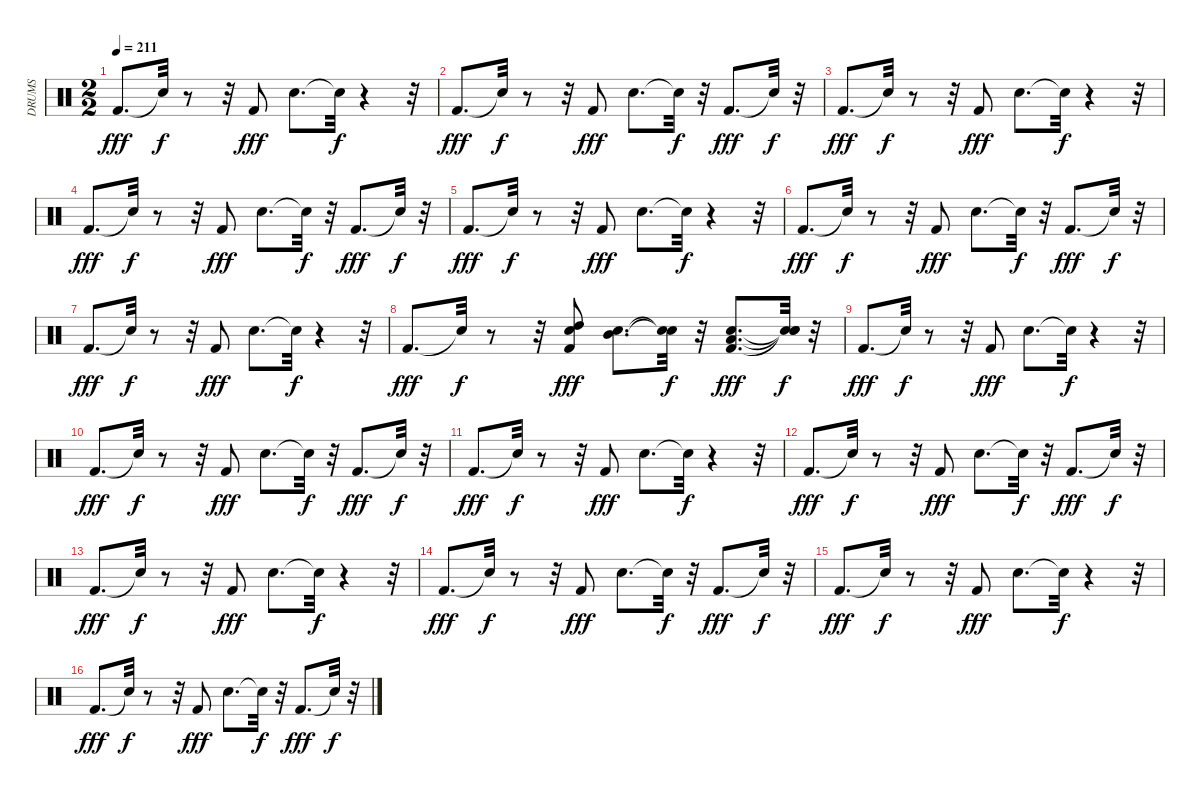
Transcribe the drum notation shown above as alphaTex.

\track ("DRUMS" "DRUMS") {instrument percussion}
\staff {score}
\articulation defaults
\ts (2 2)
\tempo 211
\clef neutral
\ks c "Kick (hit) 2".8{d dy fff} "Snare (hit)"{t}.32{dy f}
r.8 r.32 "Kick (hit) 2".8{dy fff} "Snare (hit) 2".8{d} "Snare (hit)"{t}.32{dy f} r.4 r.32 |
"Kick (hit) 2".8{d dy fff} "Snare (hit)"{t}.32{dy f} r.8 r.32 "Kick (hit) 2".8{dy fff} "Snare (hit) 2".8{d} "Snare (hit)"{t}.32{dy f} r.32 "Kick (hit) 2".8{d dy fff} "Snare (hit)"{t}.32{dy f} r.32 |
"Kick (hit) 2".8{d dy fff} "Snare (hit)"{t}.32{dy f} r.8 r.32 "Kick (hit) 2".8{dy fff} "Snare (hit) 2".8{d} "Snare (hit)"{t}.32{dy f} r.4 r.32 |
"Kick (hit) 2".8{d dy fff} "Snare (hit)"{t}.32{dy f} r.8 r.32 "Kick (hit) 2".8{dy fff} "Snare (hit) 2".8{d} "Snare (hit)"{t}.32{dy f} r.32 "Kick (hit) 2".8{d dy fff} "Snare (hit)"{t}.32{dy f} r.32 |
"Kick (hit) 2".8{d dy fff} "Snare (hit)"{t}.32{dy f} r.8 r.32 "Kick (hit) 2".8{dy fff} "Snare (hit) 2".8{d} "Snare (hit)"{t}.32{dy f} r.4 r.32 |
"Kick (hit) 2".8{d dy fff} "Snare (hit)"{t}.32{dy f} r.8 r.32 "Kick (hit) 2".8{dy fff} "Snare (hit) 2".8{d} "Snare (hit)"{t}.32{dy f} r.32 "Kick (hit) 2".8{d dy fff} "Snare (hit)"{t}.32{dy f} r.32 |
"Kick (hit) 2".8{d dy fff} "Snare (hit)"{t}.32{dy f} r.8 r.32 "Kick (hit) 2".8{dy fff} "Snare (hit) 2".8{d} "Snare (hit)"{t}.32{dy f} r.4 r.32 |
"Kick (hit) 2".8{d dy fff} "Snare (hit)"{t}.32{dy f} r.8 r.32 ("Kick (hit) 2" "Snare (hit) 2" "High Tom (hit)").8{dy fff} ("Snare (hit) 2" "Mid Tom (hit)").8{d} ("Snare (hit)"{t} "Snare (hit)"{t}).32{dy f} r.32 ("Snare (hit) 2" "Kick (hit) 2" "Low Tom (hit)").8{d dy fff} ("Snare (hit)"{t} "Snare (hit)"{t} "Snare (hit)"{t}).32{dy f} r.32 |
"Kick (hit) 2".8{d dy fff} "Snare (hit)"{t}.32{dy f} r.8 r.32 "Kick (hit) 2".8{dy fff} "Snare (hit) 2".8{d} "Snare (hit)"{t}.32{dy f} r.4 r.32 |
"Kick (hit) 2".8{d dy fff} "Snare (hit)"{t}.32{dy f} r.8 r.32 "Kick (hit) 2".8{dy fff} "Snare (hit) 2".8{d} "Snare (hit)"{t}.32{dy f} r.32 "Kick (hit) 2".8{d dy fff} "Snare (hit)"{t}.32{dy f} r.32 |
"Kick (hit) 2".8{d dy fff} "Snare (hit)"{t}.32{dy f} r.8 r.32 "Kick (hit) 2".8{dy fff} "Snare (hit) 2".8{d} "Snare (hit)"{t}.32{dy f} r.4 r.32 |
"Kick (hit) 2".8{d dy fff} "Snare (hit)"{t}.32{dy f} r.8 r.32 "Kick (hit) 2".8{dy fff} "Snare (hit) 2".8{d} "Snare (hit)"{t}.32{dy f} r.32 "Kick (hit) 2".8{d dy fff} "Snare (hit)"{t}.32{dy f} r.32 |
"Kick (hit) 2".8{d dy fff} "Snare (hit)"{t}.32{dy f} r.8 r.32 "Kick (hit) 2".8{dy fff} "Snare (hit) 2".8{d} "Snare (hit)"{t}.32{dy f} r.4 r.32 |
"Kick (hit) 2".8{d dy fff} "Snare (hit)"{t}.32{dy f} r.8 r.32 "Kick (hit) 2".8{dy fff} "Snare (hit) 2".8{d} "Snare (hit)"{t}.32{dy f} r.32 "Kick (hit) 2".8{d dy fff} "Snare (hit)"{t}.32{dy f} r.32 |
"Kick (hit) 2".8{d dy fff} "Snare (hit)"{t}.32{dy f} r.8 r.32 "Kick (hit) 2".8{dy fff} "Snare (hit) 2".8{d} "Snare (hit)"{t}.32{dy f} r.4 r.32 |
"Kick (hit) 2".8{d dy fff} "Snare (hit)"{t}.32{dy f} r.8 r.32 "Kick (hit) 2".8{dy fff} "Snare (hit) 2".8{d} "Snare (hit)"{t}.32{dy f} r.32 "Kick (hit) 2".8{d dy fff} "Snare (hit)"{t}.32{dy f} r.32
